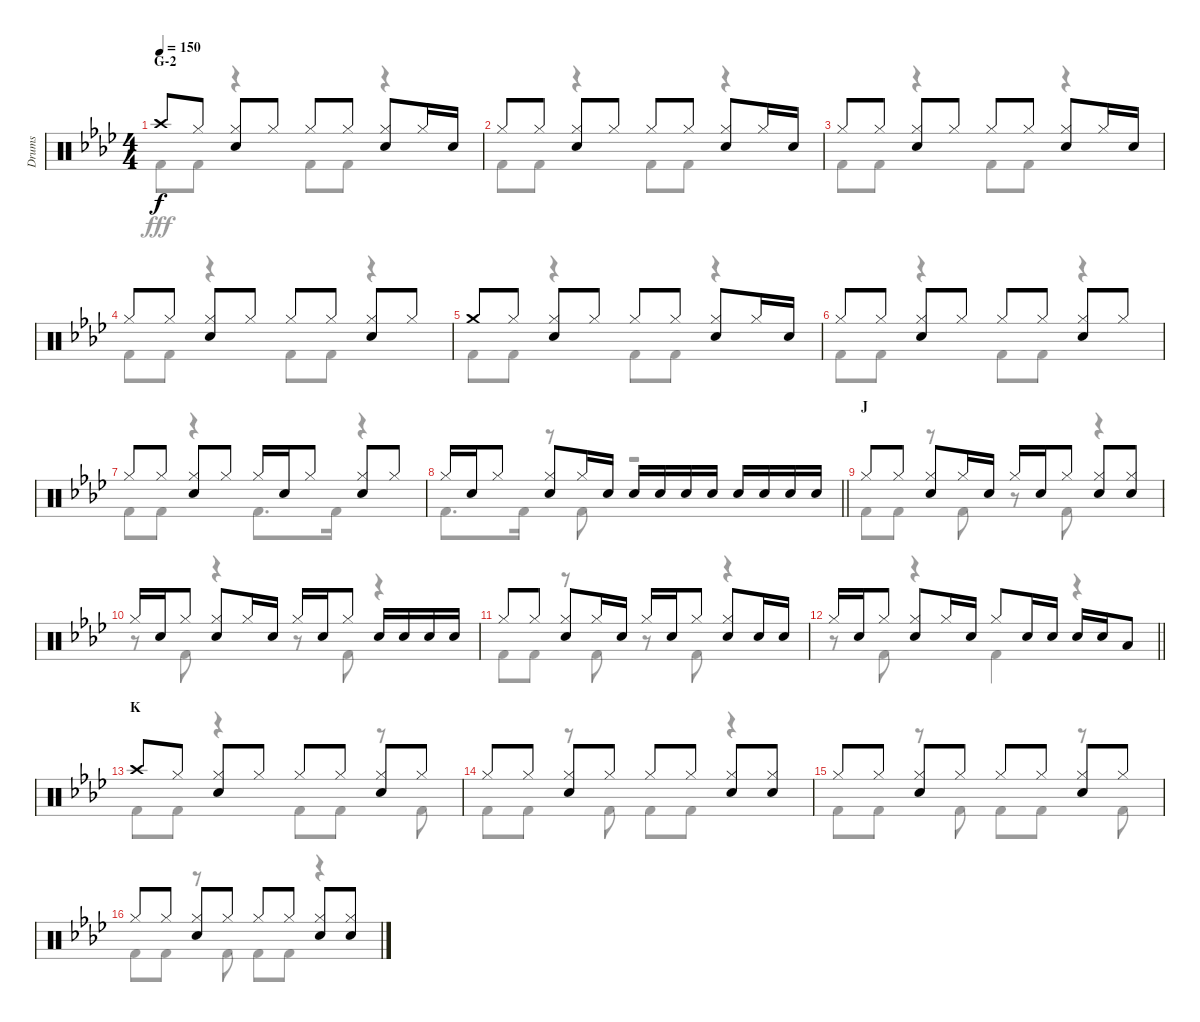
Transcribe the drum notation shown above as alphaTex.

\track ("Drums" "Drums") {instrument percussion}
\staff {score}
\articulation defaults
\voice
\ts (4 4)
\section ("" "G-2")
\tempo 150
\clef neutral
\ks ab "Crash high (hit)".8{dy f} "Hi-Hat (closed)".8
("Hi-Hat (closed)" "Snare (hit) 2").8 "Hi-Hat (closed)".8 "Hi-Hat (closed)".8 "Hi-Hat (closed)".8 ("Hi-Hat (closed)" "Snare (hit) 2").8 "Hi-Hat (closed)".16 "Snare (hit) 2".16 |
"Hi-Hat (closed)".8 "Hi-Hat (closed)".8 ("Hi-Hat (closed)" "Snare (hit) 2").8 "Hi-Hat (closed)".8 "Hi-Hat (closed)".8 "Hi-Hat (closed)".8 ("Hi-Hat (closed)" "Snare (hit) 2").8 "Hi-Hat (closed)".16 "Snare (hit) 2".16 |
"Hi-Hat (closed)".8 "Hi-Hat (closed)".8 ("Hi-Hat (closed)" "Snare (hit) 2").8 "Hi-Hat (closed)".8 "Hi-Hat (closed)".8 "Hi-Hat (closed)".8 ("Hi-Hat (closed)" "Snare (hit) 2").8 "Hi-Hat (closed)".16 "Snare (hit) 2".16 |
"Hi-Hat (closed)".8 "Hi-Hat (closed)".8 ("Hi-Hat (closed)" "Snare (hit) 2").8 "Hi-Hat (closed)".8 "Hi-Hat (closed)".8 "Hi-Hat (closed)".8 ("Hi-Hat (closed)" "Snare (hit) 2").8 "Hi-Hat (closed)".8 |
"Crash medium (hit)".8 "Hi-Hat (closed)".8 ("Hi-Hat (closed)" "Snare (hit) 2").8 "Hi-Hat (closed)".8 "Hi-Hat (closed)".8 "Hi-Hat (closed)".8 ("Hi-Hat (closed)" "Snare (hit) 2").8 "Hi-Hat (closed)".16 "Snare (hit) 2".16 |
"Hi-Hat (closed)".8 "Hi-Hat (closed)".8 ("Hi-Hat (closed)" "Snare (hit) 2").8 "Hi-Hat (closed)".8 "Hi-Hat (closed)".8 "Hi-Hat (closed)".8 ("Hi-Hat (closed)" "Snare (hit) 2").8 "Hi-Hat (closed)".8 |
"Hi-Hat (closed)".8 "Hi-Hat (closed)".8 ("Hi-Hat (closed)" "Snare (hit) 2").8 "Hi-Hat (closed)".8 "Hi-Hat (closed)".16 "Snare (hit) 2".16 "Hi-Hat (closed)".8 ("Hi-Hat (closed)" "Snare (hit) 2").8 "Hi-Hat (closed)".8 |
\barLineRight lightlight "Hi-Hat (closed)".16 "Snare (hit) 2".16 "Hi-Hat (closed)".8
("Hi-Hat (closed)" "Snare (hit) 2").8 "Hi-Hat (closed)".16 "Snare (hit) 2".16 "Snare (hit) 2".16 "Snare (hit) 2".16 "Snare (hit) 2".16 "Snare (hit) 2".16 "Snare (hit) 2".16 "Snare (hit) 2".16 "Snare (hit) 2".16 "Snare (hit) 2".16 |
\section ("" "J")
"Hi-Hat (closed)".8 "Hi-Hat (closed)".8 ("Hi-Hat (closed)" "Snare (hit) 2").8 "Hi-Hat (closed)".16 "Snare (hit) 2".16 "Hi-Hat (closed)".16 "Snare (hit) 2".16 "Hi-Hat (closed)".8 ("Hi-Hat (closed)" "Snare (hit) 2").8 ("Hi-Hat (closed)" "Snare (hit) 2").8 |
"Hi-Hat (closed)".16 "Snare (hit) 2".16 "Hi-Hat (closed)".8 ("Hi-Hat (closed)" "Snare (hit) 2").8 "Hi-Hat (closed)".16 "Snare (hit) 2".16 "Hi-Hat (closed)".16 "Snare (hit) 2".16 "Hi-Hat (closed)".8 "Snare (hit) 2".16 "Snare (hit) 2".16 "Snare (hit) 2".16 "Snare (hit) 2".16 |
"Hi-Hat (closed)".8 "Hi-Hat (closed)".8 ("Hi-Hat (closed)" "Snare (hit) 2").8 "Hi-Hat (closed)".16 "Snare (hit) 2".16 "Hi-Hat (closed)".16 "Snare (hit) 2".16 "Hi-Hat (closed)".8 ("Hi-Hat (closed)" "Snare (hit) 2").8 "Snare (hit) 2".16 "Snare (hit) 2".16 |
\barLineRight lightlight "Hi-Hat (closed)".16 "Snare (hit) 2".16 "Hi-Hat (closed)".8
("Hi-Hat (closed)" "Snare (hit) 2").8 "Hi-Hat (closed)".16 "Snare (hit) 2".16 "Hi-Hat (closed)".8 "Snare (hit) 2".16 "Snare (hit) 2".16 "Snare (hit) 2".16 "Snare (hit) 2".16 "Low Tom (hit)".8 |
\section ("" "K")
"Crash high (hit)".8 "Hi-Hat (closed)".8 ("Hi-Hat (closed)" "Snare (hit) 2").8 "Hi-Hat (closed)".8 "Hi-Hat (closed)".8 "Hi-Hat (closed)".8 ("Hi-Hat (closed)" "Snare (hit) 2").8 "Hi-Hat (closed)".8 |
"Hi-Hat (closed)".8 "Hi-Hat (closed)".8 ("Hi-Hat (closed)" "Snare (hit) 2").8 "Hi-Hat (closed)".8 "Hi-Hat (closed)".8 "Hi-Hat (closed)".8 ("Hi-Hat (closed)" "Snare (hit) 2").8 ("Hi-Hat (closed)" "Snare (hit) 2").8 |
"Hi-Hat (closed)".8 "Hi-Hat (closed)".8 ("Hi-Hat (closed)" "Snare (hit) 2").8 "Hi-Hat (closed)".8 "Hi-Hat (closed)".8 "Hi-Hat (closed)".8 ("Hi-Hat (closed)" "Snare (hit) 2").8 "Hi-Hat (closed)".8 |
"Hi-Hat (closed)".8 "Hi-Hat (closed)".8 ("Hi-Hat (closed)" "Snare (hit) 2").8 "Hi-Hat (closed)".8 "Hi-Hat (closed)".8 "Hi-Hat (closed)".8 ("Hi-Hat (closed)" "Snare (hit) 2").8 ("Hi-Hat (closed)" "Snare (hit) 2").8
\voice
\clef neutral
\ottava regular
\simile none
\ks ab "Kick (hit) 2".8{dy fff} "Kick (hit) 2".8
r.4 "Kick (hit) 2".8 "Kick (hit) 2".8 r.4 |
"Kick (hit) 2".8 "Kick (hit) 2".8 r.4 "Kick (hit) 2".8 "Kick (hit) 2".8 r.4 |
"Kick (hit) 2".8 "Kick (hit) 2".8 r.4 "Kick (hit) 2".8 "Kick (hit) 2".8 r.4 |
"Kick (hit) 2".8 "Kick (hit) 2".8 r.4 "Kick (hit) 2".8 "Kick (hit) 2".8 r.4 |
"Kick (hit) 2".8 "Kick (hit) 2".8 r.4 "Kick (hit) 2".8 "Kick (hit) 2".8 r.4 |
"Kick (hit) 2".8 "Kick (hit) 2".8 r.4 "Kick (hit) 2".8 "Kick (hit) 2".8 r.4 |
"Kick (hit) 2".8 "Kick (hit) 2".8 r.4 "Kick (hit) 2".8{d} "Kick (hit) 2".16 r.4 |
\barLineRight lightlight "Kick (hit) 2".8{d} "Kick (hit) 2".16
r.8 "Kick (hit) 2".8 r.2 |
"Kick (hit) 2".8 "Kick (hit) 2".8 r.8 "Kick (hit) 2".8 r.8 "Kick (hit) 2".8 r.4 |
r.8 "Kick (hit) 2".8 r.4 r.8 "Kick (hit) 2".8 r.4 |
"Kick (hit) 2".8 "Kick (hit) 2".8 r.8 "Kick (hit) 2".8 r.8 "Kick (hit) 2".8 r.4 |
\barLineRight lightlight
r.8 "Kick (hit) 2".8 r.4 "Kick (hit) 2".4 r.4 |
"Kick (hit) 2".8 "Kick (hit) 2".8 r.4 "Kick (hit) 2".8 "Kick (hit) 2".8 r.8 "Kick (hit) 2".8 |
"Kick (hit) 2".8 "Kick (hit) 2".8 r.8 "Kick (hit) 2".8 "Kick (hit) 2".8 "Kick (hit) 2".8 r.4 |
"Kick (hit) 2".8 "Kick (hit) 2".8 r.8 "Kick (hit) 2".8 "Kick (hit) 2".8 "Kick (hit) 2".8 r.8 "Kick (hit) 2".8 |
"Kick (hit) 2".8 "Kick (hit) 2".8 r.8 "Kick (hit) 2".8 "Kick (hit) 2".8 "Kick (hit) 2".8 r.4
